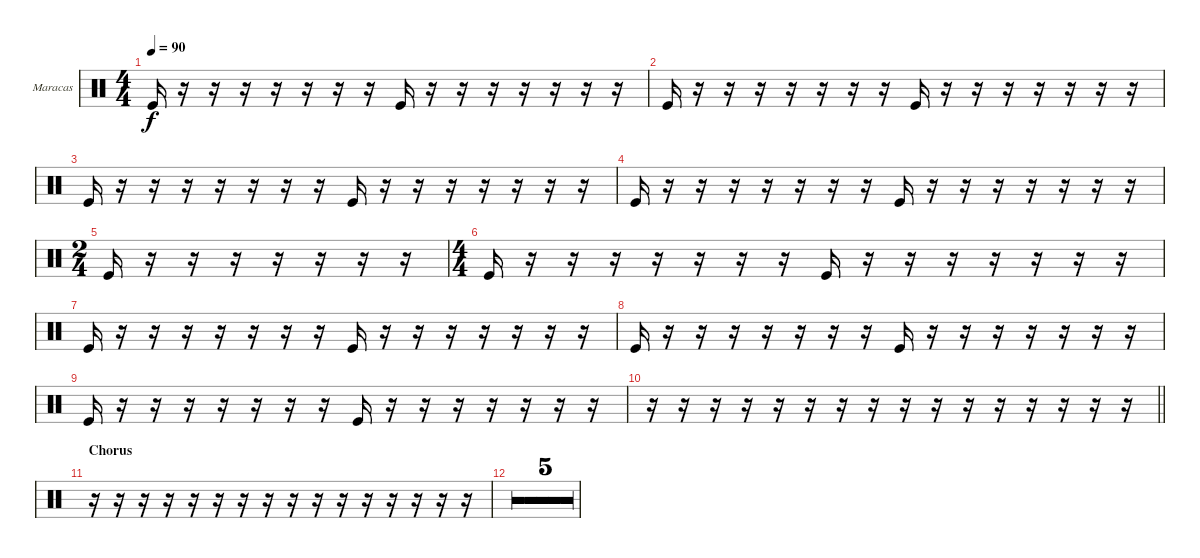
\bracketExtendMode groupsimilarinstruments
\firstSystemTrackNameOrientation horizontal
\otherSystemsTrackNameOrientation horizontal
\track ("Maracas" "Maracas") {multiBarRest instrument percussion}
\staff {score}
\articulation defaults
\ts (4 4)
\beaming (8 2 2 2 2)
\tempo 90
\clef neutral
\ks c "Kick (hit)".16{dy f}
r.16 r.16 r.16 r.16 r.16 r.16 r.16 "Kick (hit)".16 r.16 r.16 r.16 r.16 r.16 r.16 r.16 |
"Kick (hit)".16 r.16 r.16 r.16 r.16 r.16 r.16 r.16 "Kick (hit)".16 r.16 r.16 r.16 r.16 r.16 r.16 r.16 |
"Kick (hit)".16 r.16 r.16 r.16 r.16 r.16 r.16 r.16 "Kick (hit)".16 r.16 r.16 r.16 r.16 r.16 r.16 r.16 |
"Kick (hit)".16 r.16 r.16 r.16 r.16 r.16 r.16 r.16 "Kick (hit)".16 r.16 r.16 r.16 r.16 r.16 r.16 r.16 |
\ts (2 4)
\beaming (8 2 2)
"Kick (hit)".16 r.16 r.16 r.16 r.16 r.16 r.16 r.16 |
\ts (4 4)
\beaming (8 2 2 2 2)
"Kick (hit)".16 r.16 r.16 r.16 r.16 r.16 r.16 r.16 "Kick (hit)".16 r.16 r.16 r.16 r.16 r.16 r.16 r.16 |
"Kick (hit)".16 r.16 r.16 r.16 r.16 r.16 r.16 r.16 "Kick (hit)".16 r.16 r.16 r.16 r.16 r.16 r.16 r.16 |
"Kick (hit)".16 r.16 r.16 r.16 r.16 r.16 r.16 r.16 "Kick (hit)".16 r.16 r.16 r.16 r.16 r.16 r.16 r.16 |
"Kick (hit)".16 r.16 r.16 r.16 r.16 r.16 r.16 r.16 "Kick (hit)".16 r.16 r.16 r.16 r.16 r.16 r.16 r.16 |
\barLineRight lightlight
r.16 r.16 r.16 r.16 r.16 r.16 r.16 r.16 r.16 r.16 r.16 r.16 r.16 r.16 r.16 r.16 |
\section ("" "Chorus")
r.16 r.16 r.16 r.16 r.16 r.16 r.16 r.16 r.16 r.16 r.16 r.16 r.16 r.16 r.16 r.16 |
r.16 r.16 r.16 r.16 r.16 r.16 r.16 r.16 r.16 r.16 r.16 r.16 r.16 r.16 r.16 r.16 |
r.16 r.16 r.16 r.16 r.16 r.16 r.16 r.16 r.16 r.16 r.16 r.16 r.16 r.16 r.16 r.16 |
r.16 r.16 r.16 r.16 r.16 r.16 r.16 r.16 r.16 r.16 r.16 r.16 r.16 r.16 r.16 r.16 |
r.16 r.16 r.16 r.16 r.16 r.16 r.16 r.16 r.16 r.16 r.16 r.16 r.16 r.16 r.16 r.16 |
r.16 r.16 r.16 r.16 r.16 r.16 r.16 r.16 r.16 r.16 r.16 r.16 r.16 r.16 r.16 r.16
